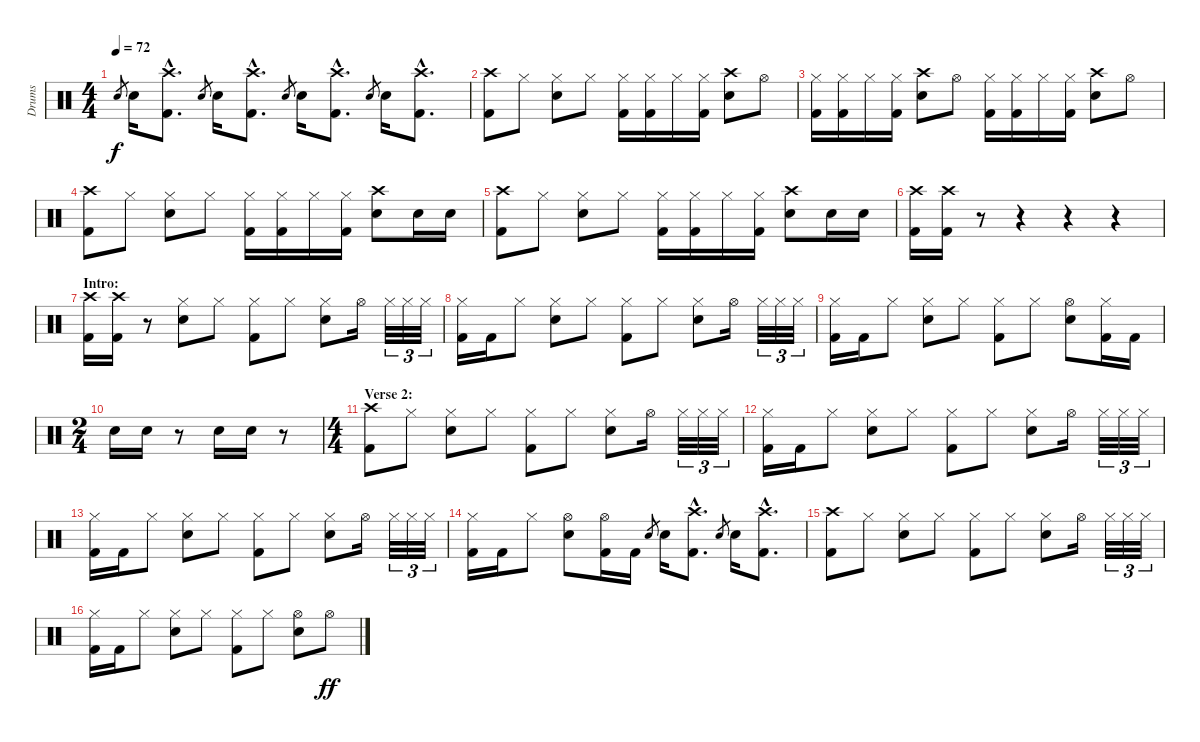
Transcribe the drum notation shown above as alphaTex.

\track ("Drums" "Drums") {instrument percussion}
\staff {score}
\articulation defaults
\ts (4 4)
\tempo 72
\clef neutral
\ks c "Electric Snare (hit)".8{gr dy f} "Electric Snare (hit)".16
("Crash high (hit)"{hac} "Kick (hit) 2"{hac}).8{d} "Electric Snare (hit)".8{gr} "Electric Snare (hit)".16 ("Crash high (hit)"{hac} "Kick (hit) 2"{hac}).8{d} "Electric Snare (hit)".8{gr} "Electric Snare (hit)".16 ("Crash high (hit)"{hac} "Kick (hit) 2"{hac}).8{d} "Electric Snare (hit)".8{gr} "Electric Snare (hit)".16 ("Crash high (hit)"{hac} "Kick (hit) 2"{hac}).8{d} |
("Crash high (hit)" "Kick (hit) 2").8 "Hi-Hat (closed)".8 ("Hi-Hat (closed)" "Electric Snare (hit)").8 "Hi-Hat (closed)".8 ("Hi-Hat (closed)" "Kick (hit) 2").16 ("Hi-Hat (closed)" "Kick (hit) 2").16 "Hi-Hat (closed)".16 ("Hi-Hat (closed)" "Kick (hit) 2").16 ("Crash high (hit)" "Electric Snare (hit)").8 "Hi-Hat (open)".8 |
("Hi-Hat (closed)" "Kick (hit) 2").16 ("Hi-Hat (closed)" "Kick (hit) 2").16 "Hi-Hat (closed)".16 ("Hi-Hat (closed)" "Kick (hit) 2").16 ("Crash high (hit)" "Electric Snare (hit)").8 "Hi-Hat (open)".8 ("Hi-Hat (closed)" "Kick (hit) 2").16 ("Hi-Hat (closed)" "Kick (hit) 2").16 "Hi-Hat (closed)".16 ("Hi-Hat (closed)" "Kick (hit) 2").16 ("Crash high (hit)" "Electric Snare (hit)").8 "Hi-Hat (open)".8 |
("Crash high (hit)" "Kick (hit) 2").8 "Hi-Hat (closed)".8 ("Hi-Hat (closed)" "Electric Snare (hit)").8 "Hi-Hat (closed)".8 ("Hi-Hat (closed)" "Kick (hit) 2").16 ("Hi-Hat (closed)" "Kick (hit) 2").16 "Hi-Hat (closed)".16 ("Hi-Hat (closed)" "Kick (hit) 2").16 ("Crash high (hit)" "Electric Snare (hit)").8 "Electric Snare (hit)".16 "Electric Snare (hit)".16 |
("Crash high (hit)" "Kick (hit) 2").8 "Hi-Hat (closed)".8 ("Hi-Hat (closed)" "Electric Snare (hit)").8 "Hi-Hat (closed)".8 ("Hi-Hat (closed)" "Kick (hit) 2").16 ("Hi-Hat (closed)" "Kick (hit) 2").16 "Hi-Hat (closed)".16 ("Hi-Hat (closed)" "Kick (hit) 2").16 ("Crash high (hit)" "Electric Snare (hit)").8 "Electric Snare (hit)".16 "Electric Snare (hit)".16 |
("Crash high (hit)" "Kick (hit) 2").16 ("Crash high (hit)" "Kick (hit) 2").16 r.8 r.4 r.4 r.4 |
\section ("" "Intro:")
("Crash high (hit)" "Kick (hit) 2").16 ("Crash high (hit)" "Kick (hit) 2").16 r.8 ("Hi-Hat (closed)" "Electric Snare (hit)").8 "Hi-Hat (closed)".8 ("Hi-Hat (closed)" "Kick (hit) 2").8 "Hi-Hat (closed)".8 ("Hi-Hat (closed)" "Electric Snare (hit)").8 "Hi-Hat (open)".16 "Hi-Hat (closed)".32{tu (3 2)} "Hi-Hat (closed)".32{tu (3 2)} "Hi-Hat (closed)".32{tu (3 2)} |
("Hi-Hat (closed)" "Kick (hit) 2").16 "Kick (hit) 2".16 "Hi-Hat (closed)".8 ("Hi-Hat (closed)" "Electric Snare (hit)").8 "Hi-Hat (closed)".8 ("Hi-Hat (closed)" "Kick (hit) 2").8 "Hi-Hat (closed)".8 ("Hi-Hat (closed)" "Electric Snare (hit)").8 "Hi-Hat (open)".16 "Hi-Hat (closed)".32{tu (3 2)} "Hi-Hat (closed)".32{tu (3 2)} "Hi-Hat (closed)".32{tu (3 2)} |
("Hi-Hat (closed)" "Kick (hit) 2").16 "Kick (hit) 2".16 "Hi-Hat (closed)".8 ("Hi-Hat (closed)" "Electric Snare (hit)").8 "Hi-Hat (closed)".8 ("Hi-Hat (closed)" "Kick (hit) 2").8 "Hi-Hat (closed)".8 ("Hi-Hat (open)" "Electric Snare (hit)").8 ("Hi-Hat (closed)" "Kick (hit) 2").16 "Kick (hit) 2".16 |
\ts (2 4)
"Electric Snare (hit)".16 "Electric Snare (hit)".16 r.8 "Electric Snare (hit)".16 "Electric Snare (hit)".16 r.8 |
\ts (4 4)
\section ("" "Verse 2:")
("Crash high (hit)" "Kick (hit) 2").8 "Hi-Hat (closed)".8 ("Hi-Hat (closed)" "Electric Snare (hit)").8 "Hi-Hat (closed)".8 ("Hi-Hat (closed)" "Kick (hit) 2").8 "Hi-Hat (closed)".8 ("Hi-Hat (closed)" "Electric Snare (hit)").8 "Hi-Hat (open)".16 "Hi-Hat (closed)".32{tu (3 2)} "Hi-Hat (closed)".32{tu (3 2)} "Hi-Hat (closed)".32{tu (3 2)} |
("Hi-Hat (closed)" "Kick (hit) 2").16 "Kick (hit) 2".16 "Hi-Hat (closed)".8 ("Hi-Hat (closed)" "Electric Snare (hit)").8 "Hi-Hat (closed)".8 ("Hi-Hat (closed)" "Kick (hit) 2").8 "Hi-Hat (closed)".8 ("Hi-Hat (closed)" "Electric Snare (hit)").8 "Hi-Hat (open)".16 "Hi-Hat (closed)".32{tu (3 2)} "Hi-Hat (closed)".32{tu (3 2)} "Hi-Hat (closed)".32{tu (3 2)} |
("Hi-Hat (closed)" "Kick (hit) 2").16 "Kick (hit) 2".16 "Hi-Hat (closed)".8 ("Hi-Hat (closed)" "Electric Snare (hit)").8 "Hi-Hat (closed)".8 ("Hi-Hat (closed)" "Kick (hit) 2").8 "Hi-Hat (closed)".8 ("Hi-Hat (closed)" "Electric Snare (hit)").8 "Hi-Hat (open)".16 "Hi-Hat (closed)".32{tu (3 2)} "Hi-Hat (closed)".32{tu (3 2)} "Hi-Hat (closed)".32{tu (3 2)} |
("Hi-Hat (closed)" "Kick (hit) 2").16 "Kick (hit) 2".16 "Hi-Hat (closed)".8 ("Hi-Hat (open)" "Electric Snare (hit)").8 ("Hi-Hat (open)" "Kick (hit) 2").16 "Kick (hit) 2".16 "Electric Snare (hit)".8{gr} "Electric Snare (hit)".16 ("Crash high (hit)"{hac} "Kick (hit) 2"{hac}).8{d} "Electric Snare (hit)".8{gr} "Electric Snare (hit)".16 ("Crash high (hit)"{hac} "Kick (hit) 2"{hac}).8{d} |
("Crash high (hit)" "Kick (hit) 2").8 "Hi-Hat (closed)".8 ("Hi-Hat (closed)" "Electric Snare (hit)").8 "Hi-Hat (closed)".8 ("Hi-Hat (closed)" "Kick (hit) 2").8 "Hi-Hat (closed)".8 ("Hi-Hat (closed)" "Electric Snare (hit)").8 "Hi-Hat (open)".16 "Hi-Hat (closed)".32{tu (3 2)} "Hi-Hat (closed)".32{tu (3 2)} "Hi-Hat (closed)".32{tu (3 2)} |
("Hi-Hat (closed)" "Kick (hit) 2").16 "Kick (hit) 2".16 "Hi-Hat (closed)".8 ("Hi-Hat (closed)" "Electric Snare (hit)").8 "Hi-Hat (closed)".8 ("Hi-Hat (closed)" "Kick (hit) 2").8 "Hi-Hat (closed)".8 ("Hi-Hat (open)" "Electric Snare (hit)").8 "Hi-Hat (open)".8{dy ff}
